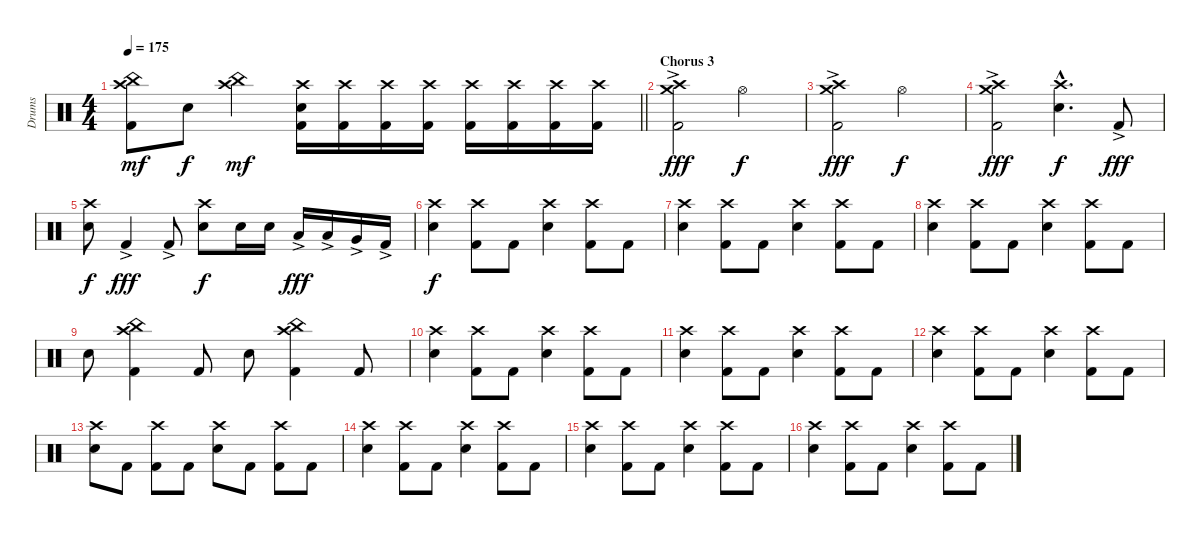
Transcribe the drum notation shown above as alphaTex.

\track ("Drums" "Drums") {instrument percussion}
\staff {score}
\articulation defaults
\ts (4 4)
\tempo 175
\clef neutral
\barLineRight lightlight
\ks c
("Crash high (hit)" "China (hit)" "Kick (hit) 2").8{dy mf} "Snare (hit) 2".8{dy f} ("Crash high (hit)" "China (hit)").4{dy mf} ("Crash high (hit)" "Snare (hit) 2" "Kick (hit) 2").16 ("Crash high (hit)" "Kick (hit) 2").16 ("Crash high (hit)" "Kick (hit) 2").16 ("Crash high (hit)" "Kick (hit) 2").16 ("Crash high (hit)" "Kick (hit) 2").16 ("Crash high (hit)" "Kick (hit) 2").16 ("Crash high (hit)" "Kick (hit) 2").16 ("Crash high (hit)" "Kick (hit) 2").16 |
\section ("" "Chorus 3")
("Crash high (hit)" "Crash medium (hit)" "Kick (hit) 2"{ac}).2{dy fff} "Hi-Hat (open)".2{dy f} |
("Crash high (hit)" "Crash medium (hit)" "Kick (hit) 2"{ac}).2{dy fff} "Hi-Hat (open)".2{dy f} |
("Crash high (hit)" "Crash medium (hit)" "Kick (hit) 2"{ac}).2{dy fff} ("Crash high (hit)"{hac} "Snare (hit) 2"{hac}).4{d dy f} "Kick (hit) 2"{ac}.8{dy fff} |
("Crash high (hit)" "Snare (hit) 2").8{dy f} "Kick (hit) 2"{ac}.4{dy fff} "Kick (hit) 2"{ac}.8 ("Crash high (hit)" "Snare (hit) 2").8{dy f} "Snare (hit) 2".16 "Snare (hit) 2".16 "Low Tom (hit)"{ac}.16{dy fff} "Low Tom (hit)"{ac}.16 "Very Low Tom (hit)"{ac}.16 "Kick (hit) 2"{ac}.16 |
("Crash high (hit)" "Snare (hit) 2").4{dy f} ("Crash high (hit)" "Kick (hit) 2").8 "Kick (hit) 2".8 ("Crash high (hit)" "Snare (hit) 2").4 ("Crash high (hit)" "Kick (hit) 2").8 "Kick (hit) 2".8 |
("Crash high (hit)" "Snare (hit) 2").4 ("Crash high (hit)" "Kick (hit) 2").8 "Kick (hit) 2".8 ("Crash high (hit)" "Snare (hit) 2").4 ("Crash high (hit)" "Kick (hit) 2").8 "Kick (hit) 2".8 |
("Crash high (hit)" "Snare (hit) 2").4 ("Crash high (hit)" "Kick (hit) 2").8 "Kick (hit) 2".8 ("Crash high (hit)" "Snare (hit) 2").4 ("Crash high (hit)" "Kick (hit) 2").8 "Kick (hit) 2".8 |
"Snare (hit) 2".8 ("China (hit)" "Crash high (hit)" "Kick (hit) 2").4 "Kick (hit) 2".8 "Snare (hit) 2".8 ("China (hit)" "Crash high (hit)" "Kick (hit) 2").4 "Kick (hit) 2".8 |
("Crash high (hit)" "Snare (hit) 2").4 ("Crash high (hit)" "Kick (hit) 2").8 "Kick (hit) 2".8 ("Crash high (hit)" "Snare (hit) 2").4 ("Crash high (hit)" "Kick (hit) 2").8 "Kick (hit) 2".8 |
("Crash high (hit)" "Snare (hit) 2").4 ("Crash high (hit)" "Kick (hit) 2").8 "Kick (hit) 2".8 ("Crash high (hit)" "Snare (hit) 2").4 ("Crash high (hit)" "Kick (hit) 2").8 "Kick (hit) 2".8 |
("Crash high (hit)" "Snare (hit) 2").4 ("Crash high (hit)" "Kick (hit) 2").8 "Kick (hit) 2".8 ("Crash high (hit)" "Snare (hit) 2").4 ("Crash high (hit)" "Kick (hit) 2").8 "Kick (hit) 2".8 |
("Crash high (hit)" "Snare (hit) 2").8 "Kick (hit) 2".8 ("Crash high (hit)" "Kick (hit) 2").8 "Kick (hit) 2".8 ("Crash high (hit)" "Snare (hit) 2").8 "Kick (hit) 2".8 ("Crash high (hit)" "Kick (hit) 2").8 "Kick (hit) 2".8 |
("Crash high (hit)" "Snare (hit) 2").4 ("Crash high (hit)" "Kick (hit) 2").8 "Kick (hit) 2".8 ("Crash high (hit)" "Snare (hit) 2").4 ("Crash high (hit)" "Kick (hit) 2").8 "Kick (hit) 2".8 |
("Crash high (hit)" "Snare (hit) 2").4 ("Crash high (hit)" "Kick (hit) 2").8 "Kick (hit) 2".8 ("Crash high (hit)" "Snare (hit) 2").4 ("Crash high (hit)" "Kick (hit) 2").8 "Kick (hit) 2".8 |
("Crash high (hit)" "Snare (hit) 2").4 ("Crash high (hit)" "Kick (hit) 2").8 "Kick (hit) 2".8 ("Crash high (hit)" "Snare (hit) 2").4 ("Crash high (hit)" "Kick (hit) 2").8 "Kick (hit) 2".8
